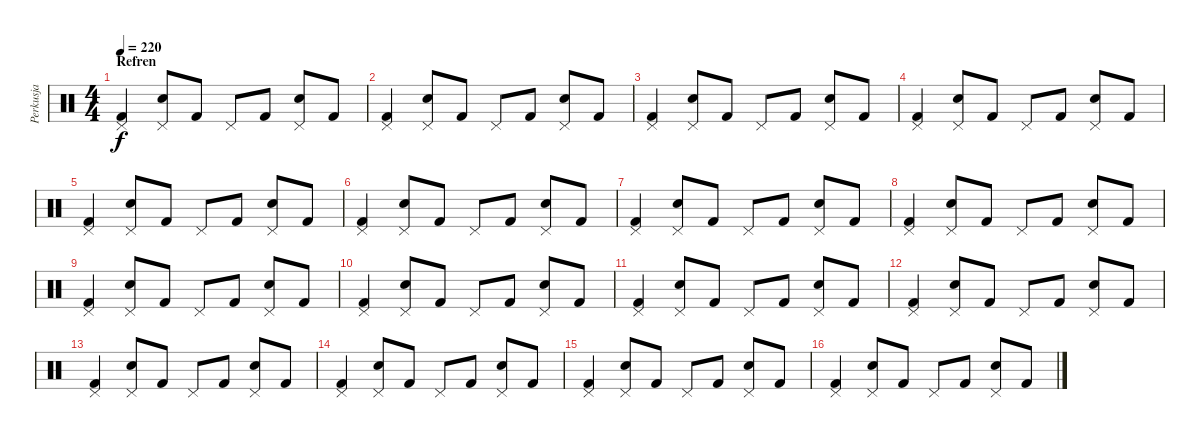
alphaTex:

\track ("Perkusja" "Perkusja") {instrument percussion}
\staff {score}
\articulation defaults
\ts (4 4)
\section ("" "Refren")
\tempo 220
\clef neutral
\ks c
("Pedal Hi-Hat (hit)" "Kick (hit) 2").4{dy f} ("Pedal Hi-Hat (hit)" "Snare (hit) 2").8 "Kick (hit) 2".8 "Pedal Hi-Hat (hit)".8 "Kick (hit) 2".8 ("Pedal Hi-Hat (hit)" "Snare (hit) 2").8 "Kick (hit) 2".8 |
("Pedal Hi-Hat (hit)" "Kick (hit) 2").4 ("Pedal Hi-Hat (hit)" "Snare (hit) 2").8 "Kick (hit) 2".8 "Pedal Hi-Hat (hit)".8 "Kick (hit) 2".8 ("Pedal Hi-Hat (hit)" "Snare (hit) 2").8 "Kick (hit) 2".8 |
("Pedal Hi-Hat (hit)" "Kick (hit) 2").4 ("Pedal Hi-Hat (hit)" "Snare (hit) 2").8 "Kick (hit) 2".8 "Pedal Hi-Hat (hit)".8 "Kick (hit) 2".8 ("Pedal Hi-Hat (hit)" "Snare (hit) 2").8 "Kick (hit) 2".8 |
("Pedal Hi-Hat (hit)" "Kick (hit) 2").4 ("Pedal Hi-Hat (hit)" "Snare (hit) 2").8 "Kick (hit) 2".8 "Pedal Hi-Hat (hit)".8 "Kick (hit) 2".8 ("Pedal Hi-Hat (hit)" "Snare (hit) 2").8 "Kick (hit) 2".8 |
("Pedal Hi-Hat (hit)" "Kick (hit) 2").4 ("Pedal Hi-Hat (hit)" "Snare (hit) 2").8 "Kick (hit) 2".8 "Pedal Hi-Hat (hit)".8 "Kick (hit) 2".8 ("Pedal Hi-Hat (hit)" "Snare (hit) 2").8 "Kick (hit) 2".8 |
("Pedal Hi-Hat (hit)" "Kick (hit) 2").4 ("Pedal Hi-Hat (hit)" "Snare (hit) 2").8 "Kick (hit) 2".8 "Pedal Hi-Hat (hit)".8 "Kick (hit) 2".8 ("Pedal Hi-Hat (hit)" "Snare (hit) 2").8 "Kick (hit) 2".8 |
("Pedal Hi-Hat (hit)" "Kick (hit) 2").4 ("Pedal Hi-Hat (hit)" "Snare (hit) 2").8 "Kick (hit) 2".8 "Pedal Hi-Hat (hit)".8 "Kick (hit) 2".8 ("Pedal Hi-Hat (hit)" "Snare (hit) 2").8 "Kick (hit) 2".8 |
("Pedal Hi-Hat (hit)" "Kick (hit) 2").4 ("Pedal Hi-Hat (hit)" "Snare (hit) 2").8 "Kick (hit) 2".8 "Pedal Hi-Hat (hit)".8 "Kick (hit) 2".8 ("Pedal Hi-Hat (hit)" "Snare (hit) 2").8 "Kick (hit) 2".8 |
("Pedal Hi-Hat (hit)" "Kick (hit) 2").4 ("Pedal Hi-Hat (hit)" "Snare (hit) 2").8 "Kick (hit) 2".8 "Pedal Hi-Hat (hit)".8 "Kick (hit) 2".8 ("Pedal Hi-Hat (hit)" "Snare (hit) 2").8 "Kick (hit) 2".8 |
("Pedal Hi-Hat (hit)" "Kick (hit) 2").4 ("Pedal Hi-Hat (hit)" "Snare (hit) 2").8 "Kick (hit) 2".8 "Pedal Hi-Hat (hit)".8 "Kick (hit) 2".8 ("Pedal Hi-Hat (hit)" "Snare (hit) 2").8 "Kick (hit) 2".8 |
("Pedal Hi-Hat (hit)" "Kick (hit) 2").4 ("Pedal Hi-Hat (hit)" "Snare (hit) 2").8 "Kick (hit) 2".8 "Pedal Hi-Hat (hit)".8 "Kick (hit) 2".8 ("Pedal Hi-Hat (hit)" "Snare (hit) 2").8 "Kick (hit) 2".8 |
("Pedal Hi-Hat (hit)" "Kick (hit) 2").4 ("Pedal Hi-Hat (hit)" "Snare (hit) 2").8 "Kick (hit) 2".8 "Pedal Hi-Hat (hit)".8 "Kick (hit) 2".8 ("Pedal Hi-Hat (hit)" "Snare (hit) 2").8 "Kick (hit) 2".8 |
("Pedal Hi-Hat (hit)" "Kick (hit) 2").4 ("Pedal Hi-Hat (hit)" "Snare (hit) 2").8 "Kick (hit) 2".8 "Pedal Hi-Hat (hit)".8 "Kick (hit) 2".8 ("Pedal Hi-Hat (hit)" "Snare (hit) 2").8 "Kick (hit) 2".8 |
("Pedal Hi-Hat (hit)" "Kick (hit) 2").4 ("Pedal Hi-Hat (hit)" "Snare (hit) 2").8 "Kick (hit) 2".8 "Pedal Hi-Hat (hit)".8 "Kick (hit) 2".8 ("Pedal Hi-Hat (hit)" "Snare (hit) 2").8 "Kick (hit) 2".8 |
("Pedal Hi-Hat (hit)" "Kick (hit) 2").4 ("Pedal Hi-Hat (hit)" "Snare (hit) 2").8 "Kick (hit) 2".8 "Pedal Hi-Hat (hit)".8 "Kick (hit) 2".8 ("Pedal Hi-Hat (hit)" "Snare (hit) 2").8 "Kick (hit) 2".8 |
("Pedal Hi-Hat (hit)" "Kick (hit) 2").4 ("Pedal Hi-Hat (hit)" "Snare (hit) 2").8 "Kick (hit) 2".8 "Pedal Hi-Hat (hit)".8 "Kick (hit) 2".8 ("Pedal Hi-Hat (hit)" "Snare (hit) 2").8 "Kick (hit) 2".8
